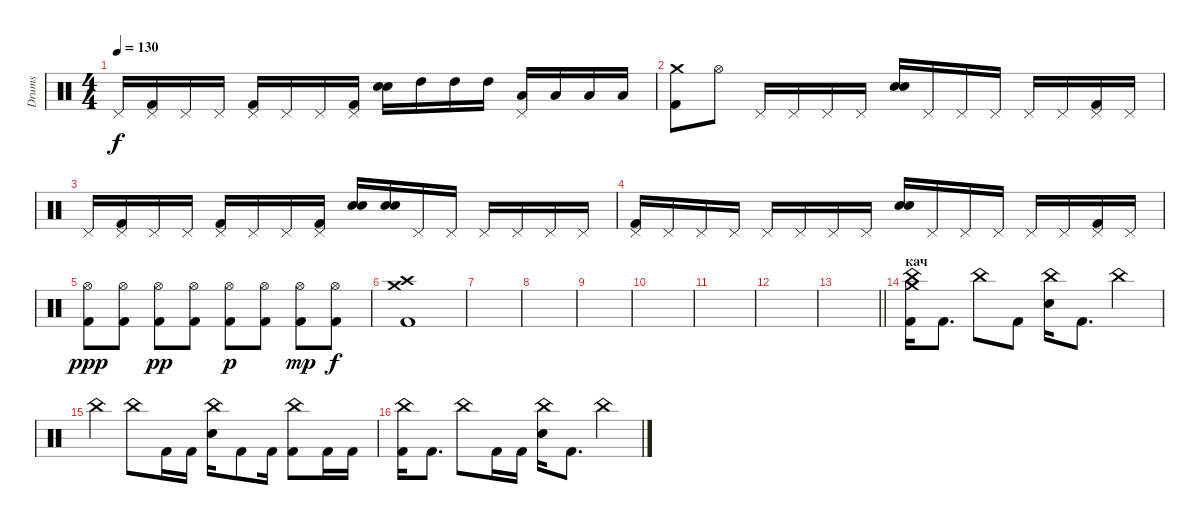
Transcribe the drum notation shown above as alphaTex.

\track ("Drums" "Drums") {instrument percussion}
\staff {score}
\articulation defaults
\ts (4 4)
\tempo 130
\clef neutral
\ks c "Pedal Hi-Hat (hit)".16{dy f}
("Pedal Hi-Hat (hit)" "Kick (hit) 2").16 "Pedal Hi-Hat (hit)".16 "Pedal Hi-Hat (hit)".16 ("Pedal Hi-Hat (hit)" "Kick (hit) 2").16 "Pedal Hi-Hat (hit)".16 "Pedal Hi-Hat (hit)".16 ("Pedal Hi-Hat (hit)" "Kick (hit) 2").16 ("Electric Snare (hit)" "Electric Snare (hit)").16 "High Tom (hit)".16 "High Tom (hit)".16 "High Tom (hit)".16 ("Low Tom (hit)" "Pedal Hi-Hat (hit)").16 "Low Tom (hit)".16 "Low Tom (hit)".16 "Low Tom (hit)".16 |
("Crash medium (hit)" "Kick (hit) 2").8 "Hi-Hat (open)".8 "Pedal Hi-Hat (hit)".16 "Pedal Hi-Hat (hit)".16 "Pedal Hi-Hat (hit)".16 "Pedal Hi-Hat (hit)".16 ("Electric Snare (hit)" "Electric Snare (hit)").16 "Pedal Hi-Hat (hit)".16 "Pedal Hi-Hat (hit)".16 "Pedal Hi-Hat (hit)".16 "Pedal Hi-Hat (hit)".16 "Pedal Hi-Hat (hit)".16 ("Pedal Hi-Hat (hit)" "Kick (hit) 2").16 "Pedal Hi-Hat (hit)".16 |
"Pedal Hi-Hat (hit)".16 ("Pedal Hi-Hat (hit)" "Kick (hit) 2").16 "Pedal Hi-Hat (hit)".16 "Pedal Hi-Hat (hit)".16 ("Pedal Hi-Hat (hit)" "Kick (hit) 2").16 "Pedal Hi-Hat (hit)".16 "Pedal Hi-Hat (hit)".16 ("Pedal Hi-Hat (hit)" "Kick (hit) 2").16 ("Electric Snare (hit)" "Electric Snare (hit)").16 ("Electric Snare (hit)" "Electric Snare (hit)").16 "Pedal Hi-Hat (hit)".16 "Pedal Hi-Hat (hit)".16 "Pedal Hi-Hat (hit)".16 "Pedal Hi-Hat (hit)".16 "Pedal Hi-Hat (hit)".16 "Pedal Hi-Hat (hit)".16 |
("Pedal Hi-Hat (hit)" "Kick (hit) 2").16 "Pedal Hi-Hat (hit)".16 "Pedal Hi-Hat (hit)".16 "Pedal Hi-Hat (hit)".16 "Pedal Hi-Hat (hit)".16 "Pedal Hi-Hat (hit)".16 "Pedal Hi-Hat (hit)".16 "Pedal Hi-Hat (hit)".16 ("Electric Snare (hit)" "Electric Snare (hit)").16 "Pedal Hi-Hat (hit)".16 "Pedal Hi-Hat (hit)".16 "Pedal Hi-Hat (hit)".16 "Pedal Hi-Hat (hit)".16 "Pedal Hi-Hat (hit)".16 ("Pedal Hi-Hat (hit)" "Kick (hit) 2").16 "Pedal Hi-Hat (hit)".16 |
("Hi-Hat (open)" "Kick (hit) 2").8{dy ppp} ("Hi-Hat (open)" "Kick (hit) 2").8 ("Hi-Hat (open)" "Kick (hit) 2").8{dy pp} ("Hi-Hat (open)" "Kick (hit) 2").8 ("Hi-Hat (open)" "Kick (hit) 2").8{dy p} ("Hi-Hat (open)" "Kick (hit) 2").8 ("Hi-Hat (open)" "Kick (hit) 2").8{dy mp} ("Hi-Hat (open)" "Kick (hit) 2").8{dy f} |
("Crash medium (hit)" "Crash high (hit)" "Kick (hit) 2").1 |
|
|
|
|
|
|
\barLineRight lightlight
|
\section ("" "кач")
("China (hit)" "Crash medium (hit)" "Kick (hit) 2").16 "Kick (hit) 2".8{d} "China (hit)".8 "Kick (hit) 2".8 ("China (hit)" "Electric Snare (hit)").16 "Kick (hit) 2".8{d} "China (hit)".4 |
"China (hit)".4 "China (hit)".8 "Kick (hit) 2".16 "Kick (hit) 2".16 ("China (hit)" "Electric Snare (hit)").16 "Kick (hit) 2".8 "Kick (hit) 2".16 ("China (hit)" "Kick (hit) 2").8 "Kick (hit) 2".16 "Kick (hit) 2".16 |
("China (hit)" "Kick (hit) 2").16 "Kick (hit) 2".8{d} "China (hit)".8 "Kick (hit) 2".16 "Kick (hit) 2".16 ("China (hit)" "Electric Snare (hit)").16 "Kick (hit) 2".8{d} "China (hit)".4
